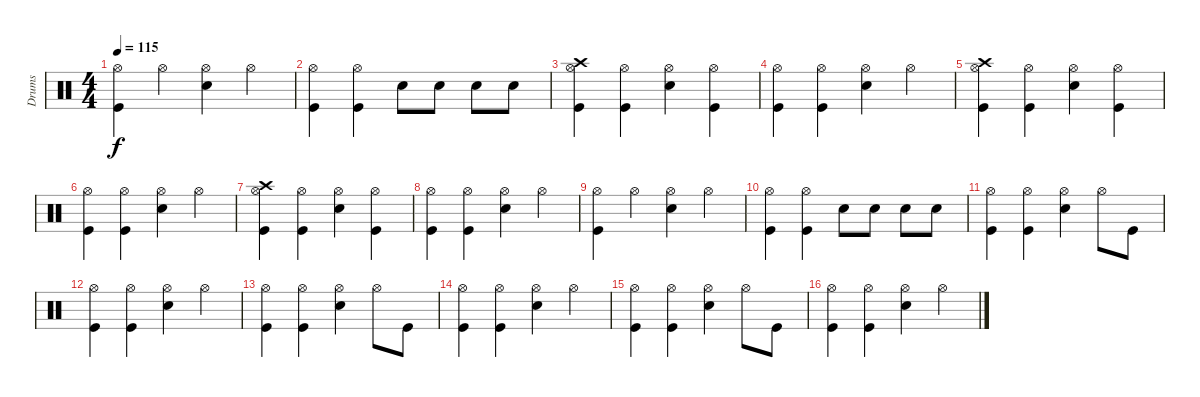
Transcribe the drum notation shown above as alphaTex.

\track ("Drums" "Drums") {instrument percussion}
\staff {score}
\articulation defaults
\ts (4 4)
\tempo 115
\clef neutral
\ks c
("Hi-Hat (open)" "Kick (hit)").4{dy f} "Hi-Hat (open)".4 ("Hi-Hat (open)" "Snare (hit) 2").4 "Hi-Hat (open)".4 |
("Hi-Hat (open)" "Kick (hit)").4 ("Hi-Hat (open)" "Kick (hit)").4 "Snare (hit) 2".8 "Snare (hit) 2".8 "Snare (hit) 2".8 "Snare (hit) 2".8 |
("Crash high (hit)" "Hi-Hat (open)" "Kick (hit)").4 ("Hi-Hat (open)" "Kick (hit)").4 ("Hi-Hat (open)" "Snare (hit) 2").4 ("Hi-Hat (open)" "Kick (hit)").4 |
("Hi-Hat (open)" "Kick (hit)").4 ("Hi-Hat (open)" "Kick (hit)").4 ("Hi-Hat (open)" "Snare (hit) 2").4 "Hi-Hat (open)".4 |
("Crash high (hit)" "Hi-Hat (open)" "Kick (hit)").4 ("Hi-Hat (open)" "Kick (hit)").4 ("Hi-Hat (open)" "Snare (hit) 2").4 ("Hi-Hat (open)" "Kick (hit)").4 |
("Hi-Hat (open)" "Kick (hit)").4 ("Hi-Hat (open)" "Kick (hit)").4 ("Hi-Hat (open)" "Snare (hit) 2").4 "Hi-Hat (open)".4 |
("Crash high (hit)" "Hi-Hat (open)" "Kick (hit)").4 ("Hi-Hat (open)" "Kick (hit)").4 ("Hi-Hat (open)" "Snare (hit) 2").4 ("Hi-Hat (open)" "Kick (hit)").4 |
("Hi-Hat (open)" "Kick (hit)").4 ("Hi-Hat (open)" "Kick (hit)").4 ("Hi-Hat (open)" "Snare (hit) 2").4 "Hi-Hat (open)".4 |
("Hi-Hat (open)" "Kick (hit)").4 "Hi-Hat (open)".4 ("Hi-Hat (open)" "Snare (hit) 2").4 "Hi-Hat (open)".4 |
("Hi-Hat (open)" "Kick (hit)").4 ("Hi-Hat (open)" "Kick (hit)").4 "Snare (hit) 2".8 "Snare (hit) 2".8 "Snare (hit) 2".8 "Snare (hit) 2".8 |
("Hi-Hat (open)" "Kick (hit)").4 ("Hi-Hat (open)" "Kick (hit)").4 ("Hi-Hat (open)" "Snare (hit) 2").4 "Hi-Hat (open)".8 "Kick (hit)".8 |
("Hi-Hat (open)" "Kick (hit)").4 ("Hi-Hat (open)" "Kick (hit)").4 ("Hi-Hat (open)" "Snare (hit) 2").4 "Hi-Hat (open)".4 |
("Hi-Hat (open)" "Kick (hit)").4 ("Hi-Hat (open)" "Kick (hit)").4 ("Hi-Hat (open)" "Snare (hit) 2").4 "Hi-Hat (open)".8 "Kick (hit)".8 |
("Hi-Hat (open)" "Kick (hit)").4 ("Hi-Hat (open)" "Kick (hit)").4 ("Hi-Hat (open)" "Snare (hit) 2").4 "Hi-Hat (open)".4 |
("Hi-Hat (open)" "Kick (hit)").4 ("Hi-Hat (open)" "Kick (hit)").4 ("Hi-Hat (open)" "Snare (hit) 2").4 "Hi-Hat (open)".8 "Kick (hit)".8 |
("Hi-Hat (open)" "Kick (hit)").4 ("Hi-Hat (open)" "Kick (hit)").4 ("Hi-Hat (open)" "Snare (hit) 2").4 "Hi-Hat (open)".4
